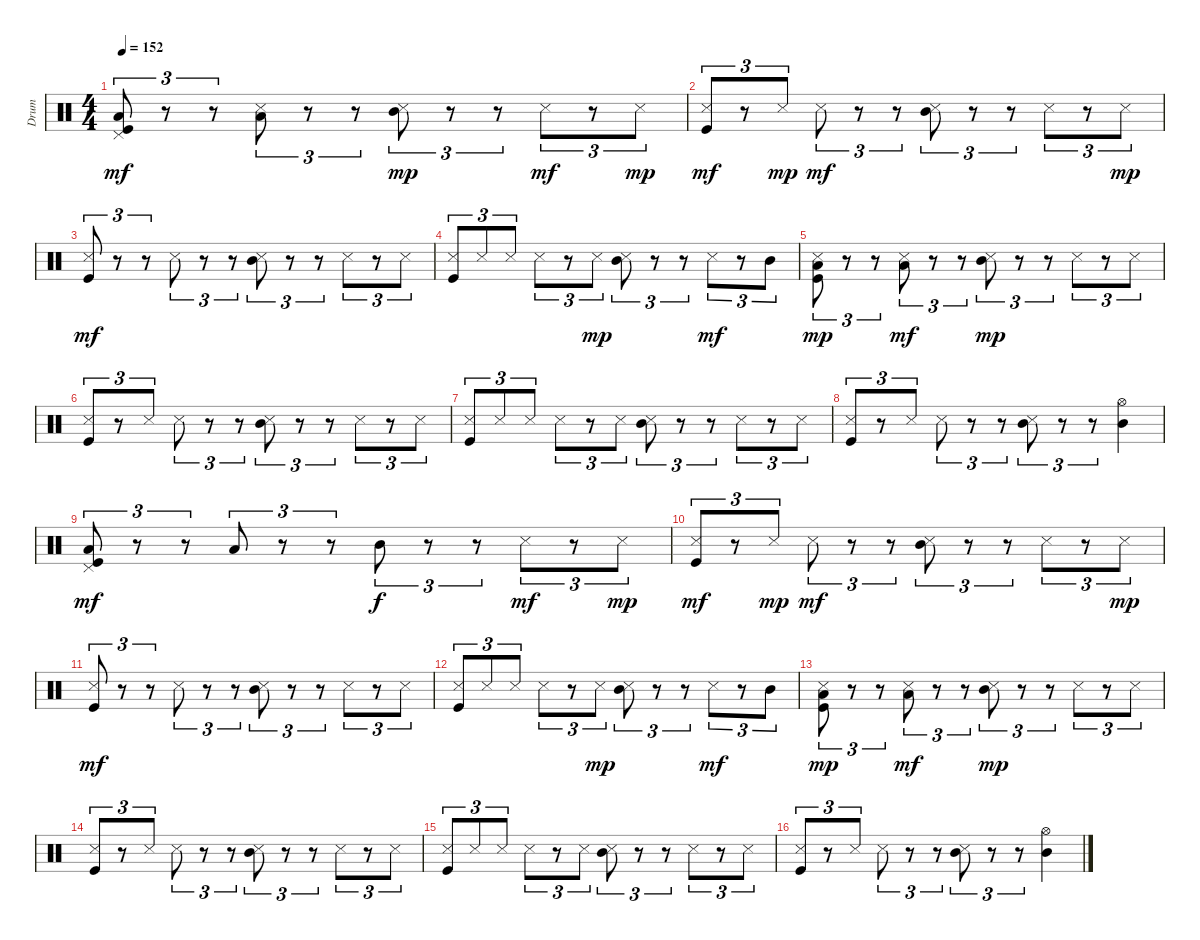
\track ("Drum" "Drum") {instrument percussion}
\staff {score}
\articulation defaults
\ts (4 4)
\tempo 152
\clef neutral
\ks c
("Pedal Hi-Hat (hit)" "Low Floor Tom (hit)" "Kick (hit)").8{tu (3 2) dy mf} r.8{tu (3 2)} r.8{tu (3 2)} ("Snare (side stick) 3" "Low Floor Tom (hit)").8{tu (3 2)} r.8{tu (3 2)} r.8{tu (3 2)} ("Snare (side stick) 3" "Mid Tom (hit)").8{tu (3 2) dy mp} r.8{tu (3 2)} r.8{tu (3 2)} "Snare (side stick) 3".8{tu (3 2) dy mf} r.8{tu (3 2)} "Snare (side stick) 3".8{tu (3 2) dy mp} |
("Snare (side stick) 3" "Kick (hit)").8{tu (3 2) dy mf} r.8{tu (3 2)} "Snare (side stick) 3".8{tu (3 2) dy mp} "Snare (side stick) 3".8{tu (3 2) dy mf} r.8{tu (3 2)} r.8{tu (3 2)} ("Snare (side stick) 3" "Mid Tom (hit)").8{tu (3 2)} r.8{tu (3 2)} r.8{tu (3 2)} "Snare (side stick) 3".8{tu (3 2)} r.8{tu (3 2)} "Snare (side stick) 3".8{tu (3 2) dy mp} |
("Snare (side stick) 3" "Kick (hit)").8{tu (3 2) dy mf} r.8{tu (3 2)} r.8{tu (3 2)} "Snare (side stick) 3".8{tu (3 2)} r.8{tu (3 2)} r.8{tu (3 2)} ("Snare (side stick) 3" "Mid Tom (hit)").8{tu (3 2)} r.8{tu (3 2)} r.8{tu (3 2)} "Snare (side stick) 3".8{tu (3 2)} r.8{tu (3 2)} "Snare (side stick) 3".8{tu (3 2)} |
("Snare (side stick) 3" "Kick (hit)").8{tu (3 2)} "Snare (side stick) 3".8{tu (3 2)} "Snare (side stick) 3".8{tu (3 2)} "Snare (side stick) 3".8{tu (3 2)} r.8{tu (3 2)} "Snare (side stick) 3".8{tu (3 2) dy mp} ("Snare (side stick) 3" "Mid Tom (hit)").8{tu (3 2)} r.8{tu (3 2)} r.8{tu (3 2)} "Snare (side stick) 3".8{tu (3 2) dy mf} r.8{tu (3 2)} "Mid Tom (hit)".8{tu (3 2)} |
("Snare (side stick) 3" "Low Floor Tom (hit)" "Kick (hit)").8{tu (3 2) dy mp} r.8{tu (3 2)} r.8{tu (3 2)} ("Snare (side stick) 3" "Low Floor Tom (hit)").8{tu (3 2) dy mf} r.8{tu (3 2)} r.8{tu (3 2)} ("Snare (side stick) 3" "Mid Tom (hit)").8{tu (3 2) dy mp} r.8{tu (3 2)} r.8{tu (3 2)} "Snare (side stick) 3".8{tu (3 2)} r.8{tu (3 2)} "Snare (side stick) 3".8{tu (3 2)} |
("Snare (side stick) 3" "Kick (hit)").8{tu (3 2)} r.8{tu (3 2)} "Snare (side stick) 3".8{tu (3 2)} "Snare (side stick) 3".8{tu (3 2)} r.8{tu (3 2)} r.8{tu (3 2)} ("Snare (side stick) 3" "Mid Tom (hit)").8{tu (3 2)} r.8{tu (3 2)} r.8{tu (3 2)} "Snare (side stick) 3".8{tu (3 2)} r.8{tu (3 2)} "Snare (side stick) 3".8{tu (3 2)} |
("Snare (side stick) 3" "Kick (hit)").8{tu (3 2)} "Snare (side stick) 3".8{tu (3 2)} "Snare (side stick) 3".8{tu (3 2)} "Snare (side stick) 3".8{tu (3 2)} r.8{tu (3 2)} "Snare (side stick) 3".8{tu (3 2)} ("Snare (side stick) 3" "Mid Tom (hit)").8{tu (3 2)} r.8{tu (3 2)} r.8{tu (3 2)} "Snare (side stick) 3".8{tu (3 2)} r.8{tu (3 2)} "Snare (side stick) 3".8{tu (3 2)} |
("Snare (side stick) 3" "Kick (hit)").8{tu (3 2)} r.8{tu (3 2)} "Snare (side stick) 3".8{tu (3 2)} "Snare (side stick) 3".8{tu (3 2)} r.8{tu (3 2)} r.8{tu (3 2)} ("Snare (side stick) 3" "Mid Tom (hit)").8{tu (3 2)} r.8{tu (3 2)} r.8{tu (3 2)} ("Hi-Hat (open)" "Mid Tom (hit)").4 |
("Pedal Hi-Hat (hit)" "Low Floor Tom (hit)" "Kick (hit)").8{tu (3 2) dy mf} r.8{tu (3 2)} r.8{tu (3 2)} "Low Floor Tom (hit)".8{tu (3 2)} r.8{tu (3 2)} r.8{tu (3 2)} "Mid Tom (hit)".8{tu (3 2) dy f} r.8{tu (3 2)} r.8{tu (3 2)} "Snare (side stick) 3".8{tu (3 2) dy mf} r.8{tu (3 2)} "Snare (side stick) 3".8{tu (3 2) dy mp} |
("Snare (side stick) 3" "Kick (hit)").8{tu (3 2) dy mf} r.8{tu (3 2)} "Snare (side stick) 3".8{tu (3 2) dy mp} "Snare (side stick) 3".8{tu (3 2) dy mf} r.8{tu (3 2)} r.8{tu (3 2)} ("Snare (side stick) 3" "Mid Tom (hit)").8{tu (3 2)} r.8{tu (3 2)} r.8{tu (3 2)} "Snare (side stick) 3".8{tu (3 2)} r.8{tu (3 2)} "Snare (side stick) 3".8{tu (3 2) dy mp} |
("Snare (side stick) 3" "Kick (hit)").8{tu (3 2) dy mf} r.8{tu (3 2)} r.8{tu (3 2)} "Snare (side stick) 3".8{tu (3 2)} r.8{tu (3 2)} r.8{tu (3 2)} ("Snare (side stick) 3" "Mid Tom (hit)").8{tu (3 2)} r.8{tu (3 2)} r.8{tu (3 2)} "Snare (side stick) 3".8{tu (3 2)} r.8{tu (3 2)} "Snare (side stick) 3".8{tu (3 2)} |
("Snare (side stick) 3" "Kick (hit)").8{tu (3 2)} "Snare (side stick) 3".8{tu (3 2)} "Snare (side stick) 3".8{tu (3 2)} "Snare (side stick) 3".8{tu (3 2)} r.8{tu (3 2)} "Snare (side stick) 3".8{tu (3 2) dy mp} ("Snare (side stick) 3" "Mid Tom (hit)").8{tu (3 2)} r.8{tu (3 2)} r.8{tu (3 2)} "Snare (side stick) 3".8{tu (3 2) dy mf} r.8{tu (3 2)} "Mid Tom (hit)".8{tu (3 2)} |
("Snare (side stick) 3" "Low Floor Tom (hit)" "Kick (hit)").8{tu (3 2) dy mp} r.8{tu (3 2)} r.8{tu (3 2)} ("Snare (side stick) 3" "Low Floor Tom (hit)").8{tu (3 2) dy mf} r.8{tu (3 2)} r.8{tu (3 2)} ("Snare (side stick) 3" "Mid Tom (hit)").8{tu (3 2) dy mp} r.8{tu (3 2)} r.8{tu (3 2)} "Snare (side stick) 3".8{tu (3 2)} r.8{tu (3 2)} "Snare (side stick) 3".8{tu (3 2)} |
("Snare (side stick) 3" "Kick (hit)").8{tu (3 2)} r.8{tu (3 2)} "Snare (side stick) 3".8{tu (3 2)} "Snare (side stick) 3".8{tu (3 2)} r.8{tu (3 2)} r.8{tu (3 2)} ("Snare (side stick) 3" "Mid Tom (hit)").8{tu (3 2)} r.8{tu (3 2)} r.8{tu (3 2)} "Snare (side stick) 3".8{tu (3 2)} r.8{tu (3 2)} "Snare (side stick) 3".8{tu (3 2)} |
("Snare (side stick) 3" "Kick (hit)").8{tu (3 2)} "Snare (side stick) 3".8{tu (3 2)} "Snare (side stick) 3".8{tu (3 2)} "Snare (side stick) 3".8{tu (3 2)} r.8{tu (3 2)} "Snare (side stick) 3".8{tu (3 2)} ("Snare (side stick) 3" "Mid Tom (hit)").8{tu (3 2)} r.8{tu (3 2)} r.8{tu (3 2)} "Snare (side stick) 3".8{tu (3 2)} r.8{tu (3 2)} "Snare (side stick) 3".8{tu (3 2)} |
("Snare (side stick) 3" "Kick (hit)").8{tu (3 2)} r.8{tu (3 2)} "Snare (side stick) 3".8{tu (3 2)} "Snare (side stick) 3".8{tu (3 2)} r.8{tu (3 2)} r.8{tu (3 2)} ("Snare (side stick) 3" "Mid Tom (hit)").8{tu (3 2)} r.8{tu (3 2)} r.8{tu (3 2)} ("Hi-Hat (open)" "Mid Tom (hit)").4
